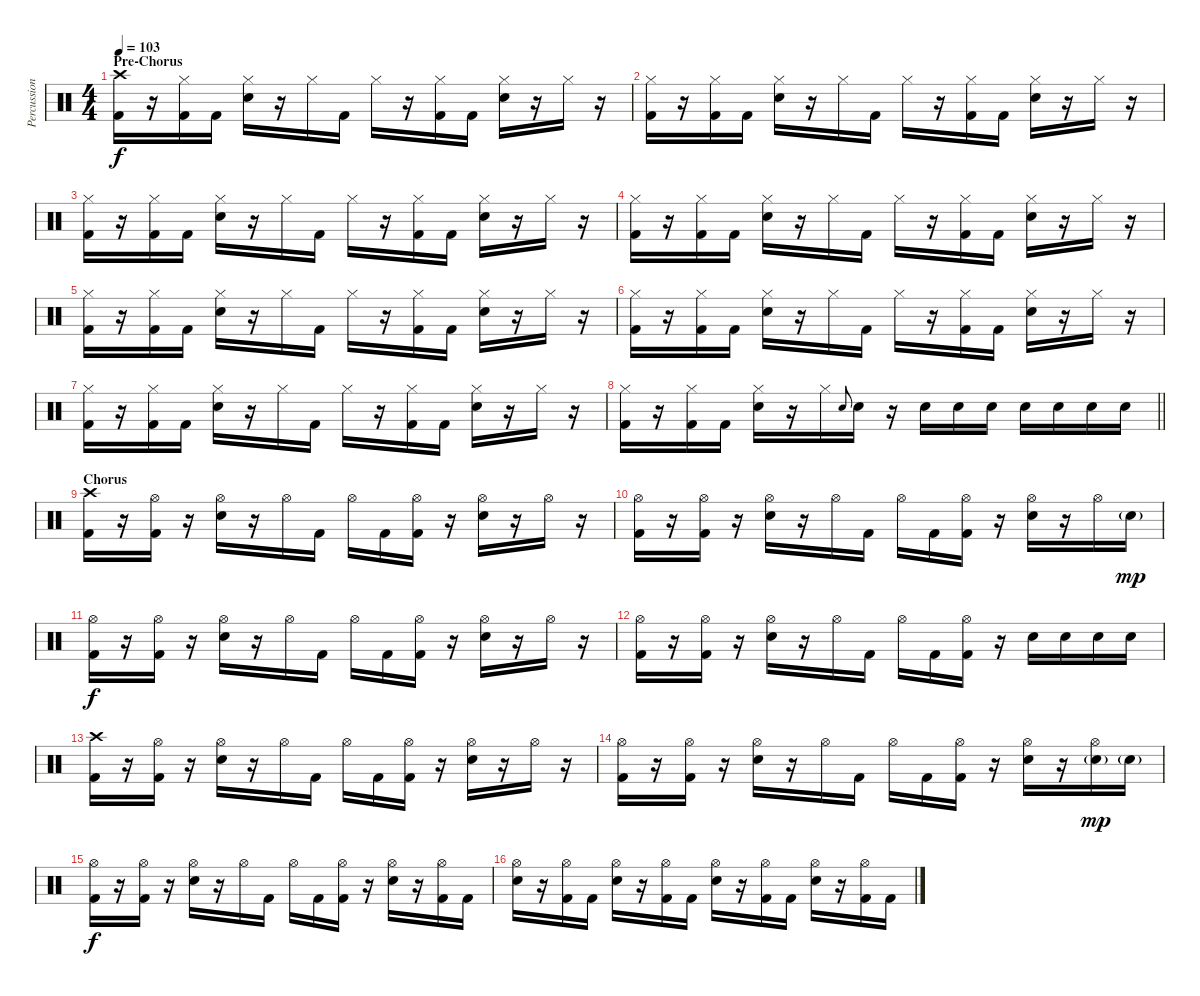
\track ("Percussion" "Percussion") {instrument percussion}
\staff {score}
\articulation defaults
\ts (4 4)
\section ("" "Pre-Chorus")
\tempo 103
\clef neutral
\ks c
("Crash high (hit)" "Kick (hit) 2").16{dy f} r.16 ("Hi-Hat (closed)" "Kick (hit) 2").16 "Kick (hit) 2".16 ("Hi-Hat (closed)" "Snare (hit) 2").16 r.16 "Hi-Hat (closed)".16 "Kick (hit) 2".16 "Hi-Hat (closed)".16 r.16 ("Hi-Hat (closed)" "Kick (hit) 2").16 "Kick (hit) 2".16 ("Hi-Hat (closed)" "Snare (hit) 2").16 r.16 "Hi-Hat (closed)".16 r.16 |
("Hi-Hat (closed)" "Kick (hit) 2").16 r.16 ("Hi-Hat (closed)" "Kick (hit) 2").16 "Kick (hit) 2".16 ("Hi-Hat (closed)" "Snare (hit) 2").16 r.16 "Hi-Hat (closed)".16 "Kick (hit) 2".16 "Hi-Hat (closed)".16 r.16 ("Hi-Hat (closed)" "Kick (hit) 2").16 "Kick (hit) 2".16 ("Hi-Hat (closed)" "Snare (hit) 2").16 r.16 "Hi-Hat (closed)".16 r.16 |
("Hi-Hat (closed)" "Kick (hit) 2").16 r.16 ("Hi-Hat (closed)" "Kick (hit) 2").16 "Kick (hit) 2".16 ("Hi-Hat (closed)" "Snare (hit) 2").16 r.16 "Hi-Hat (closed)".16 "Kick (hit) 2".16 "Hi-Hat (closed)".16 r.16 ("Hi-Hat (closed)" "Kick (hit) 2").16 "Kick (hit) 2".16 ("Hi-Hat (closed)" "Snare (hit) 2").16 r.16 "Hi-Hat (closed)".16 r.16 |
("Hi-Hat (closed)" "Kick (hit) 2").16 r.16 ("Hi-Hat (closed)" "Kick (hit) 2").16 "Kick (hit) 2".16 ("Hi-Hat (closed)" "Snare (hit) 2").16 r.16 "Hi-Hat (closed)".16 "Kick (hit) 2".16 "Hi-Hat (closed)".16 r.16 ("Hi-Hat (closed)" "Kick (hit) 2").16 "Kick (hit) 2".16 ("Hi-Hat (closed)" "Snare (hit) 2").16 r.16 "Hi-Hat (closed)".16 r.16 |
("Hi-Hat (closed)" "Kick (hit) 2").16 r.16 ("Hi-Hat (closed)" "Kick (hit) 2").16 "Kick (hit) 2".16 ("Hi-Hat (closed)" "Snare (hit) 2").16 r.16 "Hi-Hat (closed)".16 "Kick (hit) 2".16 "Hi-Hat (closed)".16 r.16 ("Hi-Hat (closed)" "Kick (hit) 2").16 "Kick (hit) 2".16 ("Hi-Hat (closed)" "Snare (hit) 2").16 r.16 "Hi-Hat (closed)".16 r.16 |
("Hi-Hat (closed)" "Kick (hit) 2").16 r.16 ("Hi-Hat (closed)" "Kick (hit) 2").16 "Kick (hit) 2".16 ("Hi-Hat (closed)" "Snare (hit) 2").16 r.16 "Hi-Hat (closed)".16 "Kick (hit) 2".16 "Hi-Hat (closed)".16 r.16 ("Hi-Hat (closed)" "Kick (hit) 2").16 "Kick (hit) 2".16 ("Hi-Hat (closed)" "Snare (hit) 2").16 r.16 "Hi-Hat (closed)".16 r.16 |
("Hi-Hat (closed)" "Kick (hit) 2").16 r.16 ("Hi-Hat (closed)" "Kick (hit) 2").16 "Kick (hit) 2".16 ("Hi-Hat (closed)" "Snare (hit) 2").16 r.16 "Hi-Hat (closed)".16 "Kick (hit) 2".16 "Hi-Hat (closed)".16 r.16 ("Hi-Hat (closed)" "Kick (hit) 2").16 "Kick (hit) 2".16 ("Hi-Hat (closed)" "Snare (hit) 2").16 r.16 "Hi-Hat (closed)".16 r.16 |
\barLineRight lightlight
("Hi-Hat (closed)" "Kick (hit) 2").16 r.16 ("Hi-Hat (closed)" "Kick (hit) 2").16 "Kick (hit) 2".16 ("Hi-Hat (closed)" "Snare (hit) 2").16 r.16 "Hi-Hat (closed)".16 "Snare (hit) 2".8{gr onbeat} "Snare (hit) 2".16 r.16 "Snare (hit) 2".16 "Snare (hit) 2".16 "Snare (hit) 2".16 "Snare (hit) 2".16 "Snare (hit) 2".16 "Snare (hit) 2".16 "Snare (hit) 2".16 |
\section ("" "Chorus")
("Crash high (hit)" "Kick (hit) 2").16 r.16 ("Hi-Hat (open)" "Kick (hit) 2").16 r.16 ("Hi-Hat (open)" "Snare (hit) 2").16 r.16 "Hi-Hat (open)".16 "Kick (hit) 2".16 "Hi-Hat (open)".16 "Kick (hit) 2".16 ("Hi-Hat (open)" "Kick (hit) 2").16 r.16 ("Hi-Hat (open)" "Snare (hit) 2").16 r.16 "Hi-Hat (open)".16 r.16 |
("Hi-Hat (open)" "Kick (hit) 2").16 r.16 ("Hi-Hat (open)" "Kick (hit) 2").16 r.16 ("Hi-Hat (open)" "Snare (hit) 2").16 r.16 "Hi-Hat (open)".16 "Kick (hit) 2".16 "Hi-Hat (open)".16 "Kick (hit) 2".16 ("Hi-Hat (open)" "Kick (hit) 2").16 r.16 ("Hi-Hat (open)" "Snare (hit) 2").16 r.16 "Hi-Hat (open)".16 "Snare (hit) 2"{g}.16{dy mp} |
("Hi-Hat (open)" "Kick (hit) 2").16{dy f} r.16 ("Hi-Hat (open)" "Kick (hit) 2").16 r.16 ("Hi-Hat (open)" "Snare (hit) 2").16 r.16 "Hi-Hat (open)".16 "Kick (hit) 2".16 "Hi-Hat (open)".16 "Kick (hit) 2".16 ("Hi-Hat (open)" "Kick (hit) 2").16 r.16 ("Hi-Hat (open)" "Snare (hit) 2").16 r.16 "Hi-Hat (open)".16 r.16 |
("Hi-Hat (open)" "Kick (hit) 2").16 r.16 ("Hi-Hat (open)" "Kick (hit) 2").16 r.16 ("Hi-Hat (open)" "Snare (hit) 2").16 r.16 "Hi-Hat (open)".16 "Kick (hit) 2".16 "Hi-Hat (open)".16 "Kick (hit) 2".16 ("Hi-Hat (open)" "Kick (hit) 2").16 r.16 "Snare (hit) 2".16 "Snare (hit) 2".16 "Snare (hit) 2".16 "Snare (hit) 2".16 |
("Crash high (hit)" "Kick (hit) 2").16 r.16 ("Hi-Hat (open)" "Kick (hit) 2").16 r.16 ("Hi-Hat (open)" "Snare (hit) 2").16 r.16 "Hi-Hat (open)".16 "Kick (hit) 2".16 "Hi-Hat (open)".16 "Kick (hit) 2".16 ("Hi-Hat (open)" "Kick (hit) 2").16 r.16 ("Hi-Hat (open)" "Snare (hit) 2").16 r.16 "Hi-Hat (open)".16 r.16 |
("Hi-Hat (open)" "Kick (hit) 2").16 r.16 ("Hi-Hat (open)" "Kick (hit) 2").16 r.16 ("Hi-Hat (open)" "Snare (hit) 2").16 r.16 "Hi-Hat (open)".16 "Kick (hit) 2".16 "Hi-Hat (open)".16 "Kick (hit) 2".16 ("Hi-Hat (open)" "Kick (hit) 2").16 r.16 ("Hi-Hat (open)" "Snare (hit) 2").16 r.16 ("Hi-Hat (open)" "Snare (hit) 2"{g}).16{dy mp} "Snare (hit) 2"{g}.16 |
("Hi-Hat (open)" "Kick (hit) 2").16{dy f} r.16 ("Hi-Hat (open)" "Kick (hit) 2").16 r.16 ("Hi-Hat (open)" "Snare (hit) 2").16 r.16 "Hi-Hat (open)".16 "Kick (hit) 2".16 "Hi-Hat (open)".16 "Kick (hit) 2".16 ("Hi-Hat (open)" "Kick (hit) 2").16 r.16 ("Hi-Hat (open)" "Snare (hit) 2").16 r.16 ("Hi-Hat (open)" "Kick (hit) 2").16 "Kick (hit) 2".16 |
("Hi-Hat (open)" "Snare (hit) 2").16 r.16 ("Hi-Hat (open)" "Kick (hit) 2").16 "Kick (hit) 2".16 ("Hi-Hat (open)" "Snare (hit) 2").16 r.16 ("Hi-Hat (open)" "Kick (hit) 2").16 "Kick (hit) 2".16 ("Hi-Hat (open)" "Snare (hit) 2").16 r.16 ("Hi-Hat (open)" "Kick (hit) 2").16 "Kick (hit) 2".16 ("Hi-Hat (open)" "Snare (hit) 2").16 r.16 ("Hi-Hat (open)" "Kick (hit) 2").16 "Kick (hit) 2".16
